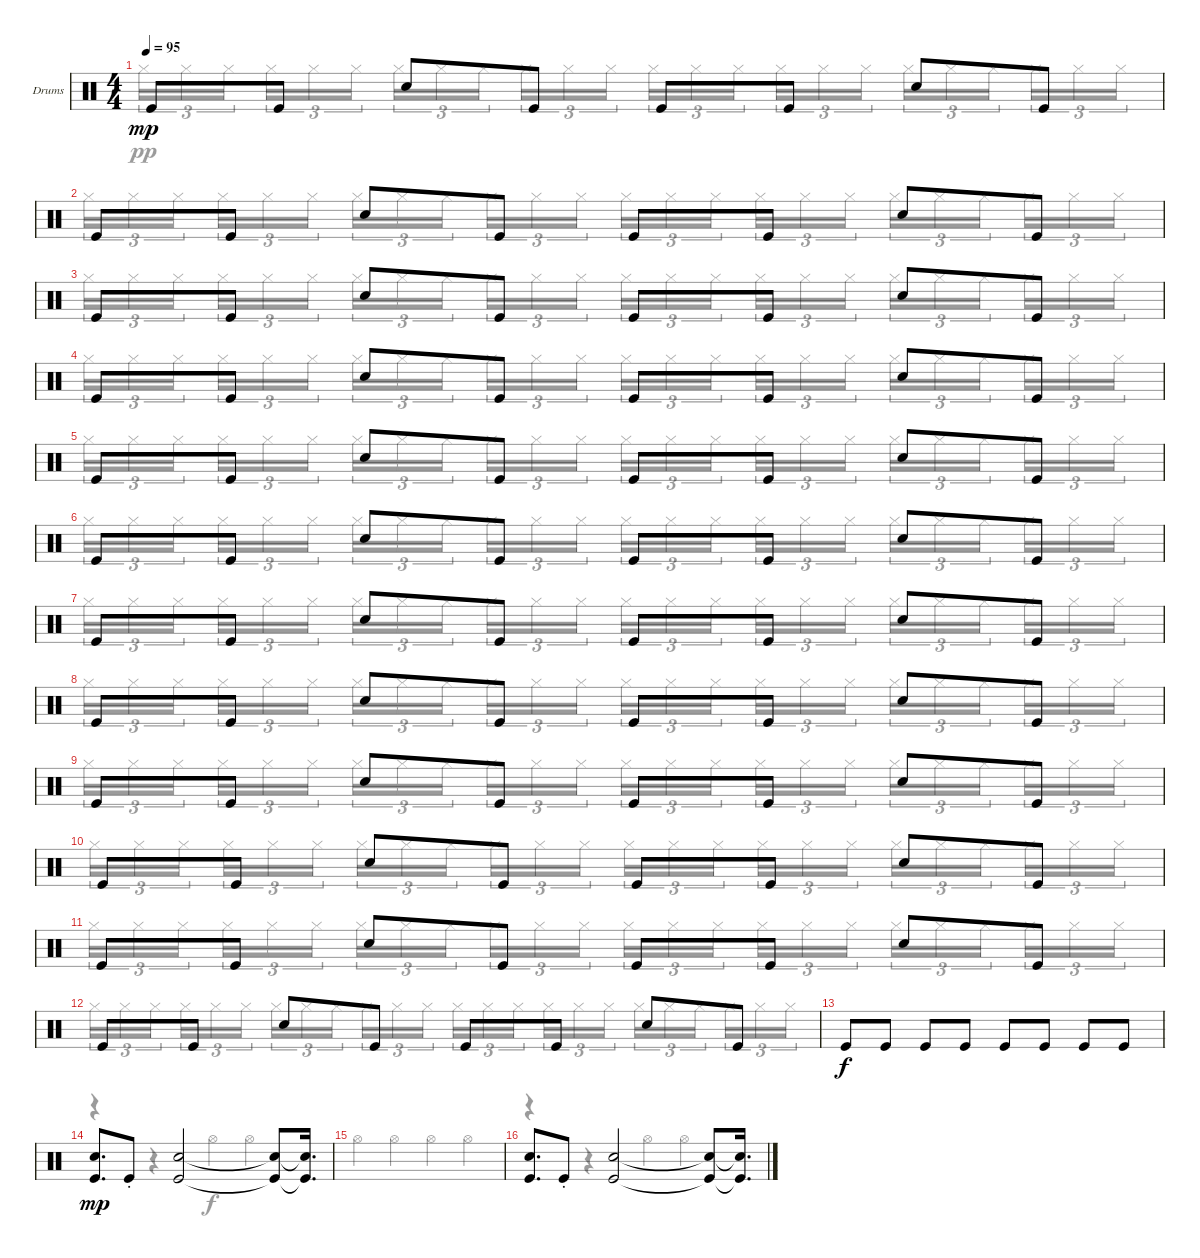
\defaultSystemsLayout 4
\bracketExtendMode groupsimilarinstruments
\firstSystemTrackNameOrientation horizontal
\otherSystemsTrackNameOrientation horizontal
\track ("Drumkit" "Drums") {instrument percussion}
\staff {score}
\articulation defaults
\voice
\ts (4 4)
\tempo 95
\clef neutral
\ks c "Kick (hit)".8{dy mp} "Kick (hit)".8 "Snare (hit) 2".8 "Kick (hit)".8 "Kick (hit)".8 "Kick (hit)".8 "Snare (hit) 2".8 "Kick (hit)".8
|
"Kick (hit)".8 "Kick (hit)".8 "Snare (hit) 2".8 "Kick (hit)".8 "Kick (hit)".8 "Kick (hit)".8 "Snare (hit) 2".8 "Kick (hit)".8 |
"Kick (hit)".8 "Kick (hit)".8 "Snare (hit) 2".8 "Kick (hit)".8 "Kick (hit)".8 "Kick (hit)".8 "Snare (hit) 2".8 "Kick (hit)".8 |
"Kick (hit)".8 "Kick (hit)".8 "Snare (hit) 2".8 "Kick (hit)".8 "Kick (hit)".8 "Kick (hit)".8 "Snare (hit) 2".8 "Kick (hit)".8 |
"Kick (hit)".8 "Kick (hit)".8 "Snare (hit) 2".8 "Kick (hit)".8 "Kick (hit)".8 "Kick (hit)".8 "Snare (hit) 2".8 "Kick (hit)".8 |
"Kick (hit)".8 "Kick (hit)".8 "Snare (hit) 2".8 "Kick (hit)".8 "Kick (hit)".8 "Kick (hit)".8 "Snare (hit) 2".8 "Kick (hit)".8 |
"Kick (hit)".8 "Kick (hit)".8 "Snare (hit) 2".8 "Kick (hit)".8 "Kick (hit)".8 "Kick (hit)".8 "Snare (hit) 2".8 "Kick (hit)".8 |
"Kick (hit)".8 "Kick (hit)".8 "Snare (hit) 2".8 "Kick (hit)".8 "Kick (hit)".8 "Kick (hit)".8 "Snare (hit) 2".8 "Kick (hit)".8 |
"Kick (hit)".8 "Kick (hit)".8 "Snare (hit) 2".8 "Kick (hit)".8 "Kick (hit)".8 "Kick (hit)".8 "Snare (hit) 2".8 "Kick (hit)".8 |
"Kick (hit)".8 "Kick (hit)".8 "Snare (hit) 2".8 "Kick (hit)".8 "Kick (hit)".8 "Kick (hit)".8 "Snare (hit) 2".8 "Kick (hit)".8 |
"Kick (hit)".8 "Kick (hit)".8 "Snare (hit) 2".8 "Kick (hit)".8 "Kick (hit)".8 "Kick (hit)".8 "Snare (hit) 2".8 "Kick (hit)".8 |
"Kick (hit)".8 "Kick (hit)".8 "Snare (hit) 2".8 "Kick (hit)".8 "Kick (hit)".8 "Kick (hit)".8 "Snare (hit) 2".8 "Kick (hit)".8 |
"Kick (hit)".8{dy f} "Kick (hit)".8 "Kick (hit)".8 "Kick (hit)".8 "Kick (hit)".8 "Kick (hit)".8 "Kick (hit)".8 "Kick (hit)".8 |
("Kick (hit)" "Snare (hit) 2").8{d dy mp} "Kick (hit)"{st}.8 ("Kick (hit)" "Snare (hit) 2").2 ("Kick (hit)"{t} "Snare (hit) 2"{t}).8 ("Kick (hit)"{t} "Snare (hit) 2"{t}).16{d} |
|
("Kick (hit)" "Snare (hit) 2").8{d} "Kick (hit)"{st}.8 ("Kick (hit)" "Snare (hit) 2").2 ("Kick (hit)"{t} "Snare (hit) 2"{t}).8 ("Kick (hit)"{t} "Snare (hit) 2"{t}).16{d}
\voice
\clef neutral
\ottava regular
\simile none
\ks c "Hi-Hat (closed)".16{tu (3 2) dy pp} "Hi-Hat (closed)".16{tu (3 2)} "Hi-Hat (closed)".16{tu (3 2)} "Hi-Hat (closed)".16{tu (3 2)} "Hi-Hat (closed)".16{tu (3 2)} "Hi-Hat (closed)".16{tu (3 2)} "Hi-Hat (closed)".16{tu (3 2)} "Hi-Hat (closed)".16{tu (3 2)} "Hi-Hat (closed)".16{tu (3 2)} "Hi-Hat (closed)".16{tu (3 2)} "Hi-Hat (closed)".16{tu (3 2)} "Hi-Hat (closed)".16{tu (3 2)} "Hi-Hat (closed)".16{tu (3 2)} "Hi-Hat (closed)".16{tu (3 2)} "Hi-Hat (closed)".16{tu (3 2)} "Hi-Hat (closed)".16{tu (3 2)} "Hi-Hat (closed)".16{tu (3 2)} "Hi-Hat (closed)".16{tu (3 2)} "Hi-Hat (closed)".16{tu (3 2)} "Hi-Hat (closed)".16{tu (3 2)} "Hi-Hat (closed)".16{tu (3 2)} "Hi-Hat (closed)".16{tu (3 2)} "Hi-Hat (closed)".16{tu (3 2)} "Hi-Hat (closed)".16{tu (3 2)}
|
"Hi-Hat (closed)".16{tu (3 2)} "Hi-Hat (closed)".16{tu (3 2)} "Hi-Hat (closed)".16{tu (3 2)} "Hi-Hat (closed)".16{tu (3 2)} "Hi-Hat (closed)".16{tu (3 2)} "Hi-Hat (closed)".16{tu (3 2)} "Hi-Hat (closed)".16{tu (3 2)} "Hi-Hat (closed)".16{tu (3 2)} "Hi-Hat (closed)".16{tu (3 2)} "Hi-Hat (closed)".16{tu (3 2)} "Hi-Hat (closed)".16{tu (3 2)} "Hi-Hat (closed)".16{tu (3 2)} "Hi-Hat (closed)".16{tu (3 2)} "Hi-Hat (closed)".16{tu (3 2)} "Hi-Hat (closed)".16{tu (3 2)} "Hi-Hat (closed)".16{tu (3 2)} "Hi-Hat (closed)".16{tu (3 2)} "Hi-Hat (closed)".16{tu (3 2)} "Hi-Hat (closed)".16{tu (3 2)} "Hi-Hat (closed)".16{tu (3 2)} "Hi-Hat (closed)".16{tu (3 2)} "Hi-Hat (closed)".16{tu (3 2)} "Hi-Hat (closed)".16{tu (3 2)} "Hi-Hat (closed)".16{tu (3 2)} |
"Hi-Hat (closed)".16{tu (3 2)} "Hi-Hat (closed)".16{tu (3 2)} "Hi-Hat (closed)".16{tu (3 2)} "Hi-Hat (closed)".16{tu (3 2)} "Hi-Hat (closed)".16{tu (3 2)} "Hi-Hat (closed)".16{tu (3 2)} "Hi-Hat (closed)".16{tu (3 2)} "Hi-Hat (closed)".16{tu (3 2)} "Hi-Hat (closed)".16{tu (3 2)} "Hi-Hat (closed)".16{tu (3 2)} "Hi-Hat (closed)".16{tu (3 2)} "Hi-Hat (closed)".16{tu (3 2)} "Hi-Hat (closed)".16{tu (3 2)} "Hi-Hat (closed)".16{tu (3 2)} "Hi-Hat (closed)".16{tu (3 2)} "Hi-Hat (closed)".16{tu (3 2)} "Hi-Hat (closed)".16{tu (3 2)} "Hi-Hat (closed)".16{tu (3 2)} "Hi-Hat (closed)".16{tu (3 2)} "Hi-Hat (closed)".16{tu (3 2)} "Hi-Hat (closed)".16{tu (3 2)} "Hi-Hat (closed)".16{tu (3 2)} "Hi-Hat (closed)".16{tu (3 2)} "Hi-Hat (closed)".16{tu (3 2)} |
"Hi-Hat (closed)".16{tu (3 2)} "Hi-Hat (closed)".16{tu (3 2)} "Hi-Hat (closed)".16{tu (3 2)} "Hi-Hat (closed)".16{tu (3 2)} "Hi-Hat (closed)".16{tu (3 2)} "Hi-Hat (closed)".16{tu (3 2)} "Hi-Hat (closed)".16{tu (3 2)} "Hi-Hat (closed)".16{tu (3 2)} "Hi-Hat (closed)".16{tu (3 2)} "Hi-Hat (closed)".16{tu (3 2)} "Hi-Hat (closed)".16{tu (3 2)} "Hi-Hat (closed)".16{tu (3 2)} "Hi-Hat (closed)".16{tu (3 2)} "Hi-Hat (closed)".16{tu (3 2)} "Hi-Hat (closed)".16{tu (3 2)} "Hi-Hat (closed)".16{tu (3 2)} "Hi-Hat (closed)".16{tu (3 2)} "Hi-Hat (closed)".16{tu (3 2)} "Hi-Hat (closed)".16{tu (3 2)} "Hi-Hat (closed)".16{tu (3 2)} "Hi-Hat (closed)".16{tu (3 2)} "Hi-Hat (closed)".16{tu (3 2)} "Hi-Hat (closed)".16{tu (3 2)} "Hi-Hat (closed)".16{tu (3 2)} |
"Hi-Hat (closed)".16{tu (3 2)} "Hi-Hat (closed)".16{tu (3 2)} "Hi-Hat (closed)".16{tu (3 2)} "Hi-Hat (closed)".16{tu (3 2)} "Hi-Hat (closed)".16{tu (3 2)} "Hi-Hat (closed)".16{tu (3 2)} "Hi-Hat (closed)".16{tu (3 2)} "Hi-Hat (closed)".16{tu (3 2)} "Hi-Hat (closed)".16{tu (3 2)} "Hi-Hat (closed)".16{tu (3 2)} "Hi-Hat (closed)".16{tu (3 2)} "Hi-Hat (closed)".16{tu (3 2)} "Hi-Hat (closed)".16{tu (3 2)} "Hi-Hat (closed)".16{tu (3 2)} "Hi-Hat (closed)".16{tu (3 2)} "Hi-Hat (closed)".16{tu (3 2)} "Hi-Hat (closed)".16{tu (3 2)} "Hi-Hat (closed)".16{tu (3 2)} "Hi-Hat (closed)".16{tu (3 2)} "Hi-Hat (closed)".16{tu (3 2)} "Hi-Hat (closed)".16{tu (3 2)} "Hi-Hat (closed)".16{tu (3 2)} "Hi-Hat (closed)".16{tu (3 2)} "Hi-Hat (closed)".16{tu (3 2)} |
"Hi-Hat (closed)".16{tu (3 2)} "Hi-Hat (closed)".16{tu (3 2)} "Hi-Hat (closed)".16{tu (3 2)} "Hi-Hat (closed)".16{tu (3 2)} "Hi-Hat (closed)".16{tu (3 2)} "Hi-Hat (closed)".16{tu (3 2)} "Hi-Hat (closed)".16{tu (3 2)} "Hi-Hat (closed)".16{tu (3 2)} "Hi-Hat (closed)".16{tu (3 2)} "Hi-Hat (closed)".16{tu (3 2)} "Hi-Hat (closed)".16{tu (3 2)} "Hi-Hat (closed)".16{tu (3 2)} "Hi-Hat (closed)".16{tu (3 2)} "Hi-Hat (closed)".16{tu (3 2)} "Hi-Hat (closed)".16{tu (3 2)} "Hi-Hat (closed)".16{tu (3 2)} "Hi-Hat (closed)".16{tu (3 2)} "Hi-Hat (closed)".16{tu (3 2)} "Hi-Hat (closed)".16{tu (3 2)} "Hi-Hat (closed)".16{tu (3 2)} "Hi-Hat (closed)".16{tu (3 2)} "Hi-Hat (closed)".16{tu (3 2)} "Hi-Hat (closed)".16{tu (3 2)} "Hi-Hat (closed)".16{tu (3 2)} |
"Hi-Hat (closed)".16{tu (3 2)} "Hi-Hat (closed)".16{tu (3 2)} "Hi-Hat (closed)".16{tu (3 2)} "Hi-Hat (closed)".16{tu (3 2)} "Hi-Hat (closed)".16{tu (3 2)} "Hi-Hat (closed)".16{tu (3 2)} "Hi-Hat (closed)".16{tu (3 2)} "Hi-Hat (closed)".16{tu (3 2)} "Hi-Hat (closed)".16{tu (3 2)} "Hi-Hat (closed)".16{tu (3 2)} "Hi-Hat (closed)".16{tu (3 2)} "Hi-Hat (closed)".16{tu (3 2)} "Hi-Hat (closed)".16{tu (3 2)} "Hi-Hat (closed)".16{tu (3 2)} "Hi-Hat (closed)".16{tu (3 2)} "Hi-Hat (closed)".16{tu (3 2)} "Hi-Hat (closed)".16{tu (3 2)} "Hi-Hat (closed)".16{tu (3 2)} "Hi-Hat (closed)".16{tu (3 2)} "Hi-Hat (closed)".16{tu (3 2)} "Hi-Hat (closed)".16{tu (3 2)} "Hi-Hat (closed)".16{tu (3 2)} "Hi-Hat (closed)".16{tu (3 2)} "Hi-Hat (closed)".16{tu (3 2)} |
"Hi-Hat (closed)".16{tu (3 2)} "Hi-Hat (closed)".16{tu (3 2)} "Hi-Hat (closed)".16{tu (3 2)} "Hi-Hat (closed)".16{tu (3 2)} "Hi-Hat (closed)".16{tu (3 2)} "Hi-Hat (closed)".16{tu (3 2)} "Hi-Hat (closed)".16{tu (3 2)} "Hi-Hat (closed)".16{tu (3 2)} "Hi-Hat (closed)".16{tu (3 2)} "Hi-Hat (closed)".16{tu (3 2)} "Hi-Hat (closed)".16{tu (3 2)} "Hi-Hat (closed)".16{tu (3 2)} "Hi-Hat (closed)".16{tu (3 2)} "Hi-Hat (closed)".16{tu (3 2)} "Hi-Hat (closed)".16{tu (3 2)} "Hi-Hat (closed)".16{tu (3 2)} "Hi-Hat (closed)".16{tu (3 2)} "Hi-Hat (closed)".16{tu (3 2)} "Hi-Hat (closed)".16{tu (3 2)} "Hi-Hat (closed)".16{tu (3 2)} "Hi-Hat (closed)".16{tu (3 2)} "Hi-Hat (closed)".16{tu (3 2)} "Hi-Hat (closed)".16{tu (3 2)} "Hi-Hat (closed)".16{tu (3 2)} |
"Hi-Hat (closed)".16{tu (3 2)} "Hi-Hat (closed)".16{tu (3 2)} "Hi-Hat (closed)".16{tu (3 2)} "Hi-Hat (closed)".16{tu (3 2)} "Hi-Hat (closed)".16{tu (3 2)} "Hi-Hat (closed)".16{tu (3 2)} "Hi-Hat (closed)".16{tu (3 2)} "Hi-Hat (closed)".16{tu (3 2)} "Hi-Hat (closed)".16{tu (3 2)} "Hi-Hat (closed)".16{tu (3 2)} "Hi-Hat (closed)".16{tu (3 2)} "Hi-Hat (closed)".16{tu (3 2)} "Hi-Hat (closed)".16{tu (3 2)} "Hi-Hat (closed)".16{tu (3 2)} "Hi-Hat (closed)".16{tu (3 2)} "Hi-Hat (closed)".16{tu (3 2)} "Hi-Hat (closed)".16{tu (3 2)} "Hi-Hat (closed)".16{tu (3 2)} "Hi-Hat (closed)".16{tu (3 2)} "Hi-Hat (closed)".16{tu (3 2)} "Hi-Hat (closed)".16{tu (3 2)} "Hi-Hat (closed)".16{tu (3 2)} "Hi-Hat (closed)".16{tu (3 2)} "Hi-Hat (closed)".16{tu (3 2)} |
"Hi-Hat (closed)".16{tu (3 2)} "Hi-Hat (closed)".16{tu (3 2)} "Hi-Hat (closed)".16{tu (3 2)} "Hi-Hat (closed)".16{tu (3 2)} "Hi-Hat (closed)".16{tu (3 2)} "Hi-Hat (closed)".16{tu (3 2)} "Hi-Hat (closed)".16{tu (3 2)} "Hi-Hat (closed)".16{tu (3 2)} "Hi-Hat (closed)".16{tu (3 2)} "Hi-Hat (closed)".16{tu (3 2)} "Hi-Hat (closed)".16{tu (3 2)} "Hi-Hat (closed)".16{tu (3 2)} "Hi-Hat (closed)".16{tu (3 2)} "Hi-Hat (closed)".16{tu (3 2)} "Hi-Hat (closed)".16{tu (3 2)} "Hi-Hat (closed)".16{tu (3 2)} "Hi-Hat (closed)".16{tu (3 2)} "Hi-Hat (closed)".16{tu (3 2)} "Hi-Hat (closed)".16{tu (3 2)} "Hi-Hat (closed)".16{tu (3 2)} "Hi-Hat (closed)".16{tu (3 2)} "Hi-Hat (closed)".16{tu (3 2)} "Hi-Hat (closed)".16{tu (3 2)} "Hi-Hat (closed)".16{tu (3 2)} |
"Hi-Hat (closed)".16{tu (3 2)} "Hi-Hat (closed)".16{tu (3 2)} "Hi-Hat (closed)".16{tu (3 2)} "Hi-Hat (closed)".16{tu (3 2)} "Hi-Hat (closed)".16{tu (3 2)} "Hi-Hat (closed)".16{tu (3 2)} "Hi-Hat (closed)".16{tu (3 2)} "Hi-Hat (closed)".16{tu (3 2)} "Hi-Hat (closed)".16{tu (3 2)} "Hi-Hat (closed)".16{tu (3 2)} "Hi-Hat (closed)".16{tu (3 2)} "Hi-Hat (closed)".16{tu (3 2)} "Hi-Hat (closed)".16{tu (3 2)} "Hi-Hat (closed)".16{tu (3 2)} "Hi-Hat (closed)".16{tu (3 2)} "Hi-Hat (closed)".16{tu (3 2)} "Hi-Hat (closed)".16{tu (3 2)} "Hi-Hat (closed)".16{tu (3 2)} "Hi-Hat (closed)".16{tu (3 2)} "Hi-Hat (closed)".16{tu (3 2)} "Hi-Hat (closed)".16{tu (3 2)} "Hi-Hat (closed)".16{tu (3 2)} "Hi-Hat (closed)".16{tu (3 2)} "Hi-Hat (closed)".16{tu (3 2)} |
"Hi-Hat (closed)".16{tu (3 2)} "Hi-Hat (closed)".16{tu (3 2)} "Hi-Hat (closed)".16{tu (3 2)} "Hi-Hat (closed)".16{tu (3 2)} "Hi-Hat (closed)".16{tu (3 2)} "Hi-Hat (closed)".16{tu (3 2)} "Hi-Hat (closed)".16{tu (3 2)} "Hi-Hat (closed)".16{tu (3 2)} "Hi-Hat (closed)".16{tu (3 2)} "Hi-Hat (closed)".16{tu (3 2)} "Hi-Hat (closed)".16{tu (3 2)} "Hi-Hat (closed)".16{tu (3 2)} "Hi-Hat (closed)".16{tu (3 2)} "Hi-Hat (closed)".16{tu (3 2)} "Hi-Hat (closed)".16{tu (3 2)} "Hi-Hat (closed)".16{tu (3 2)} "Hi-Hat (closed)".16{tu (3 2)} "Hi-Hat (closed)".16{tu (3 2)} "Hi-Hat (closed)".16{tu (3 2)} "Hi-Hat (closed)".16{tu (3 2)} "Hi-Hat (closed)".16{tu (3 2)} "Hi-Hat (closed)".16{tu (3 2)} "Hi-Hat (closed)".16{tu (3 2)} "Hi-Hat (closed)".16{tu (3 2)} |
|
r.4 r.4 "Hi-Hat (open)".4{dy f} "Hi-Hat (open)".4 |
"Hi-Hat (open)".4 "Hi-Hat (open)".4 "Hi-Hat (open)".4 "Hi-Hat (open)".4 |
r.4 r.4 "Hi-Hat (open)".4 "Hi-Hat (open)".4
